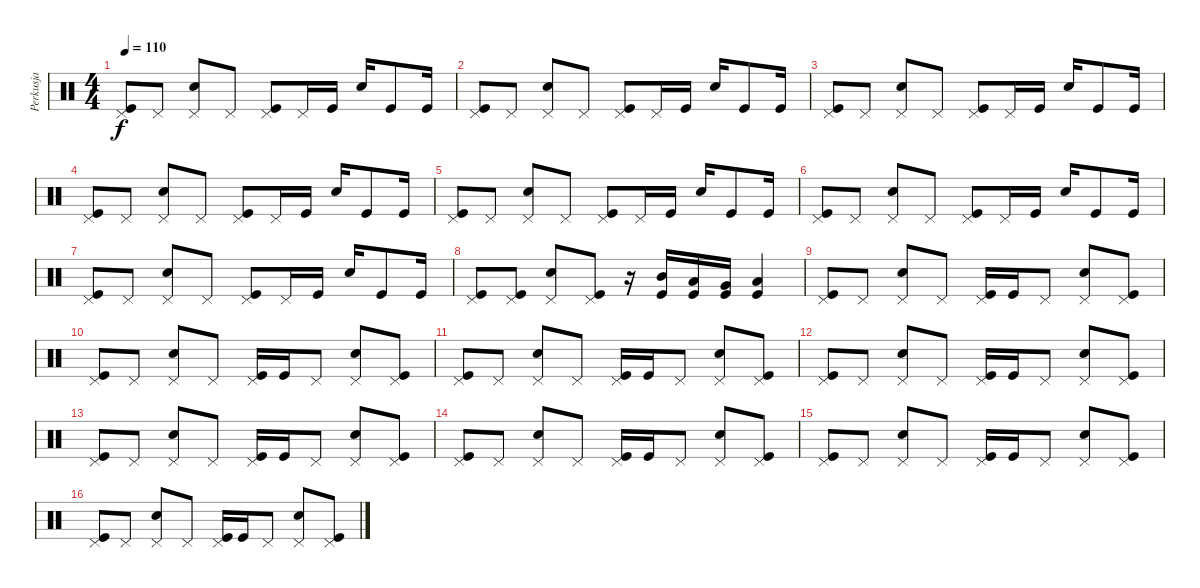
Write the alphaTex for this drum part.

\track ("Perkusja" "Perkusja") {instrument percussion}
\staff {score}
\articulation defaults
\ts (4 4)
\tempo 110
\clef neutral
\ks c
("Pedal Hi-Hat (hit)" "Kick (hit)").8{dy f} "Pedal Hi-Hat (hit)".8 ("Pedal Hi-Hat (hit)" "Snare (hit) 2").8 "Pedal Hi-Hat (hit)".8 ("Pedal Hi-Hat (hit)" "Kick (hit)").8 "Pedal Hi-Hat (hit)".16 "Kick (hit)".16 "Snare (hit) 2".16 "Kick (hit)".8 "Kick (hit)".16 |
("Pedal Hi-Hat (hit)" "Kick (hit)").8 "Pedal Hi-Hat (hit)".8 ("Pedal Hi-Hat (hit)" "Snare (hit) 2").8 "Pedal Hi-Hat (hit)".8 ("Pedal Hi-Hat (hit)" "Kick (hit)").8 "Pedal Hi-Hat (hit)".16 "Kick (hit)".16 "Snare (hit) 2".16 "Kick (hit)".8 "Kick (hit)".16 |
("Pedal Hi-Hat (hit)" "Kick (hit)").8 "Pedal Hi-Hat (hit)".8 ("Pedal Hi-Hat (hit)" "Snare (hit) 2").8 "Pedal Hi-Hat (hit)".8 ("Pedal Hi-Hat (hit)" "Kick (hit)").8 "Pedal Hi-Hat (hit)".16 "Kick (hit)".16 "Snare (hit) 2".16 "Kick (hit)".8 "Kick (hit)".16 |
("Pedal Hi-Hat (hit)" "Kick (hit)").8 "Pedal Hi-Hat (hit)".8 ("Pedal Hi-Hat (hit)" "Snare (hit) 2").8 "Pedal Hi-Hat (hit)".8 ("Pedal Hi-Hat (hit)" "Kick (hit)").8 "Pedal Hi-Hat (hit)".16 "Kick (hit)".16 "Snare (hit) 2".16 "Kick (hit)".8 "Kick (hit)".16 |
("Pedal Hi-Hat (hit)" "Kick (hit)").8 "Pedal Hi-Hat (hit)".8 ("Pedal Hi-Hat (hit)" "Snare (hit) 2").8 "Pedal Hi-Hat (hit)".8 ("Pedal Hi-Hat (hit)" "Kick (hit)").8 "Pedal Hi-Hat (hit)".16 "Kick (hit)".16 "Snare (hit) 2".16 "Kick (hit)".8 "Kick (hit)".16 |
("Pedal Hi-Hat (hit)" "Kick (hit)").8 "Pedal Hi-Hat (hit)".8 ("Pedal Hi-Hat (hit)" "Snare (hit) 2").8 "Pedal Hi-Hat (hit)".8 ("Pedal Hi-Hat (hit)" "Kick (hit)").8 "Pedal Hi-Hat (hit)".16 "Kick (hit)".16 "Snare (hit) 2".16 "Kick (hit)".8 "Kick (hit)".16 |
("Pedal Hi-Hat (hit)" "Kick (hit)").8 "Pedal Hi-Hat (hit)".8 ("Pedal Hi-Hat (hit)" "Snare (hit) 2").8 "Pedal Hi-Hat (hit)".8 ("Pedal Hi-Hat (hit)" "Kick (hit)").8 "Pedal Hi-Hat (hit)".16 "Kick (hit)".16 "Snare (hit) 2".16 "Kick (hit)".8 "Kick (hit)".16 |
("Pedal Hi-Hat (hit)" "Kick (hit)").8 ("Pedal Hi-Hat (hit)" "Kick (hit)").8 ("Pedal Hi-Hat (hit)" "Snare (hit) 2").8 ("Pedal Hi-Hat (hit)" "Kick (hit)").8 r.16 ("Mid Tom (hit)" "Kick (hit)").16 ("Low Tom (hit)" "Kick (hit)").16 ("Very Low Tom (hit)" "Kick (hit)").16 ("Low Floor Tom (hit)" "Kick (hit)").4 |
("Pedal Hi-Hat (hit)" "Kick (hit)").8 "Pedal Hi-Hat (hit)".8 ("Pedal Hi-Hat (hit)" "Snare (hit) 2").8 "Pedal Hi-Hat (hit)".8 ("Pedal Hi-Hat (hit)" "Kick (hit)").16 "Kick (hit)".16 "Pedal Hi-Hat (hit)".8 ("Pedal Hi-Hat (hit)" "Snare (hit) 2").8 ("Pedal Hi-Hat (hit)" "Kick (hit)").8 |
("Pedal Hi-Hat (hit)" "Kick (hit)").8 "Pedal Hi-Hat (hit)".8 ("Pedal Hi-Hat (hit)" "Snare (hit) 2").8 "Pedal Hi-Hat (hit)".8 ("Pedal Hi-Hat (hit)" "Kick (hit)").16 "Kick (hit)".16 "Pedal Hi-Hat (hit)".8 ("Pedal Hi-Hat (hit)" "Snare (hit) 2").8 ("Pedal Hi-Hat (hit)" "Kick (hit)").8 |
("Pedal Hi-Hat (hit)" "Kick (hit)").8 "Pedal Hi-Hat (hit)".8 ("Pedal Hi-Hat (hit)" "Snare (hit) 2").8 "Pedal Hi-Hat (hit)".8 ("Pedal Hi-Hat (hit)" "Kick (hit)").16 "Kick (hit)".16 "Pedal Hi-Hat (hit)".8 ("Pedal Hi-Hat (hit)" "Snare (hit) 2").8 ("Pedal Hi-Hat (hit)" "Kick (hit)").8 |
("Pedal Hi-Hat (hit)" "Kick (hit)").8 "Pedal Hi-Hat (hit)".8 ("Pedal Hi-Hat (hit)" "Snare (hit) 2").8 "Pedal Hi-Hat (hit)".8 ("Pedal Hi-Hat (hit)" "Kick (hit)").16 "Kick (hit)".16 "Pedal Hi-Hat (hit)".8 ("Pedal Hi-Hat (hit)" "Snare (hit) 2").8 ("Pedal Hi-Hat (hit)" "Kick (hit)").8 |
("Pedal Hi-Hat (hit)" "Kick (hit)").8 "Pedal Hi-Hat (hit)".8 ("Pedal Hi-Hat (hit)" "Snare (hit) 2").8 "Pedal Hi-Hat (hit)".8 ("Pedal Hi-Hat (hit)" "Kick (hit)").16 "Kick (hit)".16 "Pedal Hi-Hat (hit)".8 ("Pedal Hi-Hat (hit)" "Snare (hit) 2").8 ("Pedal Hi-Hat (hit)" "Kick (hit)").8 |
("Pedal Hi-Hat (hit)" "Kick (hit)").8 "Pedal Hi-Hat (hit)".8 ("Pedal Hi-Hat (hit)" "Snare (hit) 2").8 "Pedal Hi-Hat (hit)".8 ("Pedal Hi-Hat (hit)" "Kick (hit)").16 "Kick (hit)".16 "Pedal Hi-Hat (hit)".8 ("Pedal Hi-Hat (hit)" "Snare (hit) 2").8 ("Pedal Hi-Hat (hit)" "Kick (hit)").8 |
("Pedal Hi-Hat (hit)" "Kick (hit)").8 "Pedal Hi-Hat (hit)".8 ("Pedal Hi-Hat (hit)" "Snare (hit) 2").8 "Pedal Hi-Hat (hit)".8 ("Pedal Hi-Hat (hit)" "Kick (hit)").16 "Kick (hit)".16 "Pedal Hi-Hat (hit)".8 ("Pedal Hi-Hat (hit)" "Snare (hit) 2").8 ("Pedal Hi-Hat (hit)" "Kick (hit)").8 |
("Pedal Hi-Hat (hit)" "Kick (hit)").8 "Pedal Hi-Hat (hit)".8 ("Pedal Hi-Hat (hit)" "Snare (hit) 2").8 "Pedal Hi-Hat (hit)".8 ("Pedal Hi-Hat (hit)" "Kick (hit)").16 "Kick (hit)".16 "Pedal Hi-Hat (hit)".8 ("Pedal Hi-Hat (hit)" "Snare (hit) 2").8 ("Pedal Hi-Hat (hit)" "Kick (hit)").8
